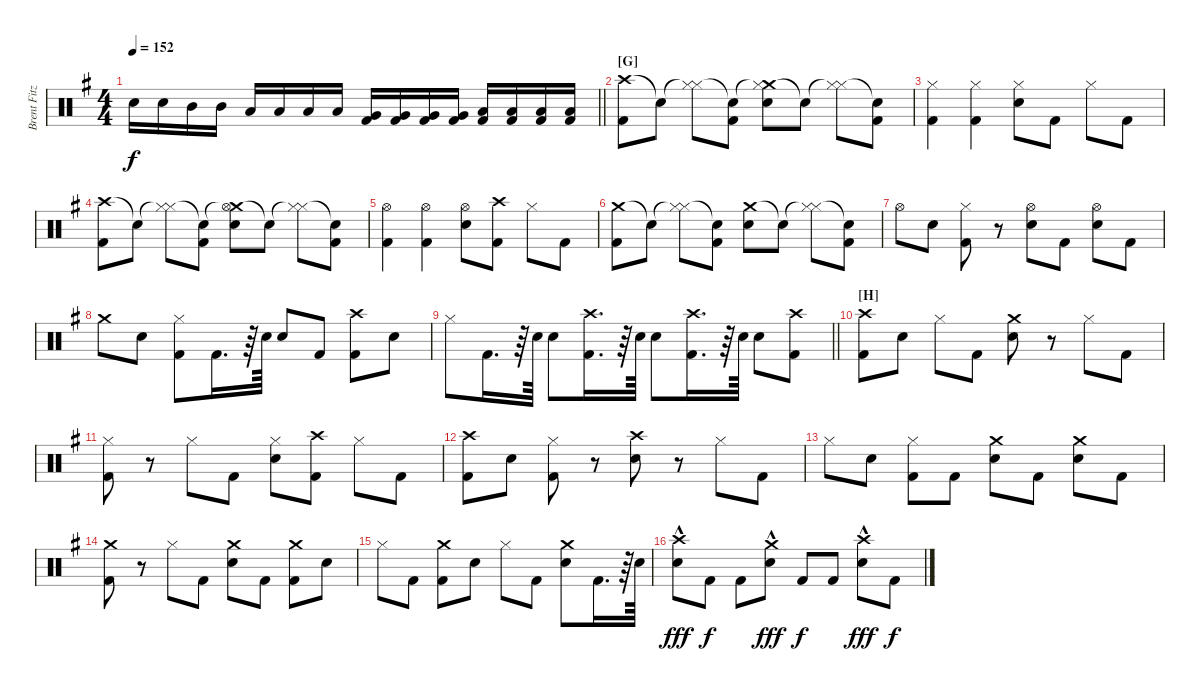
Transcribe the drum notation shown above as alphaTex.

\track ("Brent Fitz" "Brent Fitz") {instrument percussion}
\staff {score}
\articulation defaults
\ts (4 4)
\tempo 152
\clef neutral
\barLineRight lightlight
\ks eminor "Snare (hit) 2".16{dy f} "Snare (hit) 2".16 "Mid Tom (hit)".16 "Mid Tom (hit)".16 "Low Tom (hit)".16 "Low Tom (hit)".16 "Low Tom (hit)".16 "Low Tom (hit)".16
("Very Low Tom (hit)" "Kick (hit) 2").16 ("Very Low Tom (hit)" "Kick (hit) 2").16 ("Very Low Tom (hit)" "Kick (hit) 2").16 ("Very Low Tom (hit)" "Kick (hit) 2").16 ("Low Floor Tom (hit)" "Kick (hit) 2").16 ("Low Floor Tom (hit)" "Kick (hit) 2").16 ("Low Floor Tom (hit)" "Kick (hit) 2").16 ("Low Floor Tom (hit)" "Kick (hit) 2").16 |
\section ("" "[G]")
("Crash high (hit)" "Kick (hit) 2").8 "Snare (hit)"{t}.8 ("Hi-Hat (closed)"{t} "Hi-Hat (closed)").8 ("Snare (hit)"{t} "Kick (hit) 2").8 ("Crash medium (hit)"{t} "Hi-Hat (closed)" "Snare (hit) 2").8 "Snare (hit)"{t}.8 ("Hi-Hat (closed)"{t} "Hi-Hat (closed)").8 ("Snare (hit)"{t} "Kick (hit) 2").8 |
("Hi-Hat (closed)" "Kick (hit) 2").4 ("Hi-Hat (closed)" "Kick (hit) 2").4 ("Hi-Hat (closed)" "Snare (hit) 2").8 "Kick (hit) 2".8 "Hi-Hat (closed)".8 "Kick (hit) 2".8 |
("Crash high (hit)" "Kick (hit) 2").8 "Snare (hit)"{t}.8 ("Hi-Hat (closed)"{t} "Hi-Hat (closed)").8 ("Snare (hit)"{t} "Kick (hit) 2").8 ("Crash medium (hit)"{t} "Hi-Hat (open)" "Snare (hit) 2").8 "Snare (hit)"{t}.8 ("Hi-Hat (closed)"{t} "Hi-Hat (closed)").8 ("Snare (hit)"{t} "Kick (hit) 2").8 |
("Hi-Hat (open)" "Kick (hit) 2").4 ("Hi-Hat (open)" "Kick (hit) 2").4 ("Hi-Hat (open)" "Snare (hit) 2").8 ("Crash high (hit)" "Kick (hit) 2").8 "Hi-Hat (closed)".8 "Kick (hit) 2".8 |
("Crash medium (hit)" "Kick (hit) 2").8 "Snare (hit)"{t}.8 ("Hi-Hat (closed)"{t} "Hi-Hat (closed)").8 ("Snare (hit)"{t} "Kick (hit) 2").8 ("Crash medium (hit)" "Snare (hit) 2").8 "Snare (hit)"{t}.8 ("Hi-Hat (closed)"{t} "Hi-Hat (closed)").8 ("Snare (hit)"{t} "Kick (hit) 2").8 |
"Hi-Hat (open)".8 "Snare (hit) 2".8 ("Hi-Hat (closed)" "Kick (hit) 2").8 r.8 ("Hi-Hat (open)" "Snare (hit) 2").8 "Kick (hit) 2".8 ("Hi-Hat (open)" "Snare (hit) 2").8 "Kick (hit) 2".8 |
"Crash medium (hit)".8 "Snare (hit) 2".8 ("Hi-Hat (closed)" "Kick (hit) 2").8 "Kick (hit) 2".16{d} r.64 "Snare (hit) 2".64 "Snare (hit) 2".8 "Kick (hit) 2".8 ("Crash high (hit)" "Kick (hit) 2").8 "Snare (hit) 2".8 |
\barLineRight lightlight "Hi-Hat (closed)".8 "Kick (hit) 2".16{d}
r.64 "Snare (hit) 2".64 "Snare (hit) 2".8 ("Crash high (hit)" "Kick (hit) 2").16{d} r.64 "Snare (hit) 2".64 "Snare (hit) 2".8 ("Crash high (hit)" "Kick (hit) 2").16{d} r.64 "Snare (hit) 2".64 "Snare (hit) 2".8 ("Crash high (hit)" "Kick (hit) 2").8 |
\section ("" "[H]")
("Crash high (hit)" "Kick (hit) 2").8 "Snare (hit) 2".8 "Hi-Hat (closed)".8 "Kick (hit) 2".8 ("Crash medium (hit)" "Snare (hit) 2").8 r.8 "Hi-Hat (closed)".8 "Kick (hit) 2".8 |
("Hi-Hat (closed)" "Kick (hit) 2").8 r.8 "Hi-Hat (closed)".8 "Kick (hit) 2".8 ("Hi-Hat (closed)" "Snare (hit) 2").8 ("Crash high (hit)" "Kick (hit) 2").8 "Hi-Hat (closed)".8 "Kick (hit) 2".8 |
("Crash high (hit)" "Kick (hit) 2").8 "Snare (hit) 2".8 ("Hi-Hat (closed)" "Kick (hit) 2").8 r.8 ("Crash high (hit)" "Snare (hit) 2").8 r.8 "Hi-Hat (closed)".8 "Kick (hit) 2".8 |
"Hi-Hat (closed)".8 "Snare (hit) 2".8 ("Hi-Hat (closed)" "Kick (hit) 2").8 "Kick (hit) 2".8 ("Crash medium (hit)" "Snare (hit) 2").8 "Kick (hit) 2".8 ("Crash medium (hit)" "Snare (hit) 2").8 "Kick (hit) 2".8 |
("Crash medium (hit)" "Kick (hit) 2").8 r.8 "Hi-Hat (closed)".8 "Kick (hit) 2".8 ("Crash medium (hit)" "Snare (hit) 2").8 "Kick (hit) 2".8 ("Crash medium (hit)" "Kick (hit) 2").8 "Snare (hit) 2".8 |
"Hi-Hat (closed)".8 "Kick (hit) 2".8 ("Crash medium (hit)" "Kick (hit) 2").8 "Snare (hit) 2".8 "Hi-Hat (closed)".8 "Kick (hit) 2".8 ("Crash medium (hit)" "Snare (hit) 2").8 "Kick (hit) 2".16{d} r.64 "Snare (hit) 2".64 |
("Crash high (hit)" "Snare (hit) 2"{hac}).8{dy fff} "Kick (hit) 2".8{dy f} "Kick (hit) 2".8 ("Crash medium (hit)" "Snare (hit) 2"{hac}).8{dy fff} "Kick (hit) 2".8{dy f} "Kick (hit) 2".8 ("Crash high (hit)" "Snare (hit) 2"{hac}).8{dy fff} "Kick (hit) 2".8{dy f}
